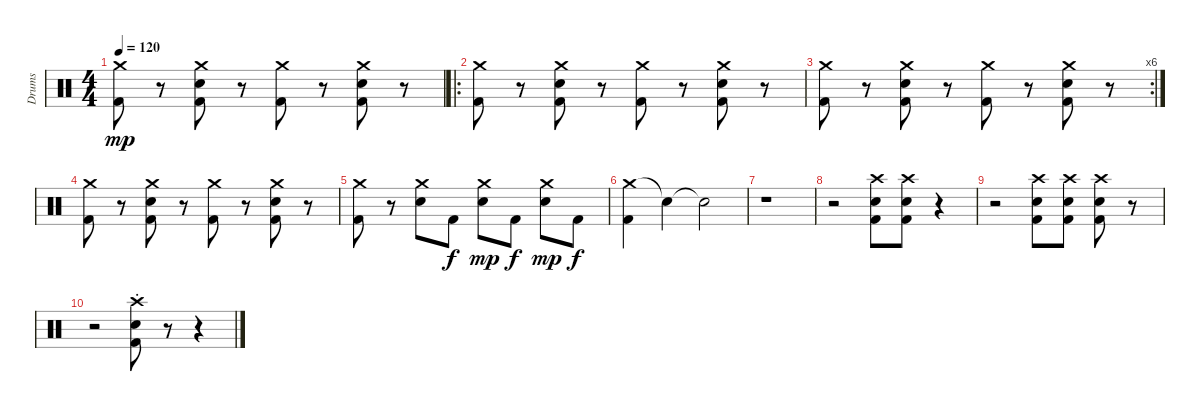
\track ("Drums" "Drums") {instrument percussion}
\staff {score}
\articulation defaults
\ts (4 4)
\tempo 120
\clef neutral
\ks c
("Crash medium (hit)" "Kick (hit) 2").8{dy mp} r.8 ("Crash medium (hit)" "Electric Snare (hit)" "Kick (hit) 2").8 r.8 ("Crash medium (hit)" "Kick (hit) 2").8 r.8 ("Crash medium (hit)" "Electric Snare (hit)" "Kick (hit) 2").8 r.8 |
\ro
("Crash medium (hit)" "Kick (hit) 2").8 r.8 ("Crash medium (hit)" "Electric Snare (hit)" "Kick (hit) 2").8 r.8 ("Crash medium (hit)" "Kick (hit) 2").8 r.8 ("Crash medium (hit)" "Electric Snare (hit)" "Kick (hit) 2").8 r.8 |
\rc 6
("Crash medium (hit)" "Kick (hit) 2").8 r.8 ("Crash medium (hit)" "Electric Snare (hit)" "Kick (hit) 2").8 r.8 ("Crash medium (hit)" "Kick (hit) 2").8 r.8 ("Crash medium (hit)" "Electric Snare (hit)" "Kick (hit) 2").8 r.8 |
("Crash medium (hit)" "Kick (hit) 2").8 r.8 ("Crash medium (hit)" "Electric Snare (hit)" "Kick (hit) 2").8 r.8 ("Crash medium (hit)" "Kick (hit) 2").8 r.8 ("Crash medium (hit)" "Electric Snare (hit)" "Kick (hit) 2").8 r.8 |
("Crash medium (hit)" "Kick (hit) 2").8 r.8 ("Crash medium (hit)" "Electric Snare (hit)").8 "Kick (hit) 2".8{dy f} ("Crash medium (hit)" "Electric Snare (hit)").8{dy mp} "Kick (hit) 2".8{dy f} ("Crash medium (hit)" "Electric Snare (hit)").8{dy mp} "Kick (hit) 2".8{dy f} |
("Crash medium (hit)" "Kick (hit) 2").4 "Snare (hit)"{t}.4 "Snare (hit)"{t}.2 |
r.1 |
r.2 ("Crash high (hit)" "Electric Snare (hit)" "Kick (hit) 2").8 ("Crash high (hit)" "Electric Snare (hit)" "Kick (hit) 2").8 r.4 |
r.2 ("Crash high (hit)" "Electric Snare (hit)" "Kick (hit) 2").8 ("Crash high (hit)" "Electric Snare (hit)" "Kick (hit) 2").8 ("Crash high (hit)" "Electric Snare (hit)" "Kick (hit) 2").8 r.8 |
r.2 ("Crash high (hit)"{st} "Electric Snare (hit)"{st} "Kick (hit) 2"{st}).8 r.8 r.4
